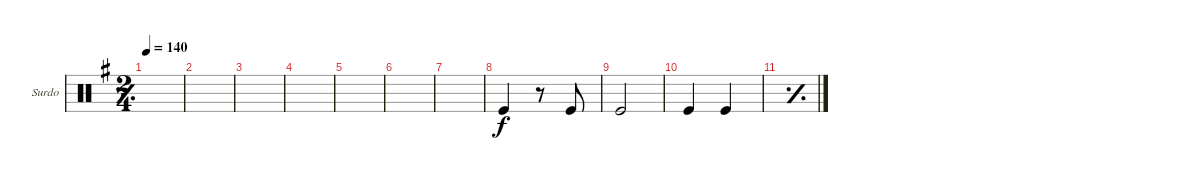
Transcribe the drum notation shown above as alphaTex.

\defaultSystemsLayout 4
\bracketExtendMode groupsimilarinstruments
\firstSystemTrackNameOrientation horizontal
\otherSystemsTrackNameOrientation horizontal
\track ("Surdo" "Surdo") {instrument percussion}
\staff {score}
\articulation defaults
\ts (2 4)
\tempo 140
\clef neutral
\simile simple
\ks g
|
|
|
|
|
|
|
\simile none "Kick (hit)".4
r.8 "Kick (hit)".8 |
"Kick (hit)".2 |
"Kick (hit)".4 "Kick (hit)".4 |
\simile simple
